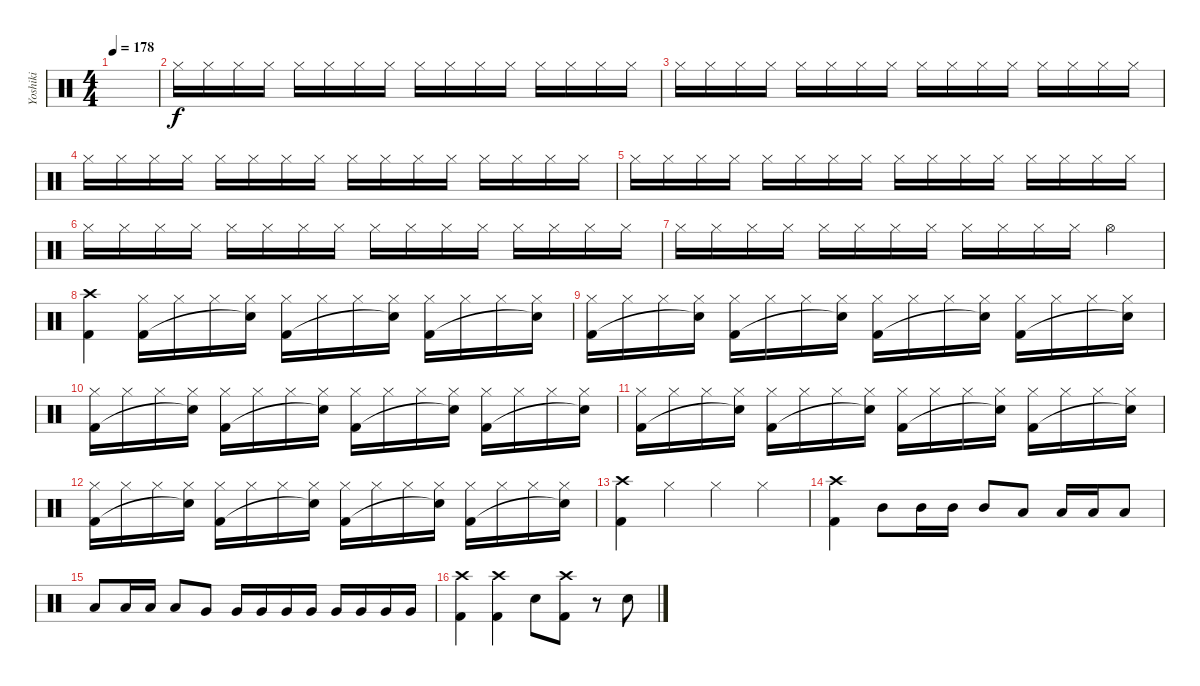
\track ("Yoshiki" "Yoshiki") {instrument percussion}
\staff {score}
\articulation defaults
\ts (4 4)
\tempo 178
\clef neutral
\ks c
|
"Hi-Hat (closed)".16 "Hi-Hat (closed)".16 "Hi-Hat (closed)".16 "Hi-Hat (closed)".16 "Hi-Hat (closed)".16 "Hi-Hat (closed)".16 "Hi-Hat (closed)".16 "Hi-Hat (closed)".16 "Hi-Hat (closed)".16 "Hi-Hat (closed)".16 "Hi-Hat (closed)".16 "Hi-Hat (closed)".16 "Hi-Hat (closed)".16 "Hi-Hat (closed)".16 "Hi-Hat (closed)".16 "Hi-Hat (closed)".16 |
"Hi-Hat (closed)".16 "Hi-Hat (closed)".16 "Hi-Hat (closed)".16 "Hi-Hat (closed)".16 "Hi-Hat (closed)".16 "Hi-Hat (closed)".16 "Hi-Hat (closed)".16 "Hi-Hat (closed)".16 "Hi-Hat (closed)".16 "Hi-Hat (closed)".16 "Hi-Hat (closed)".16 "Hi-Hat (closed)".16 "Hi-Hat (closed)".16 "Hi-Hat (closed)".16 "Hi-Hat (closed)".16 "Hi-Hat (closed)".16 |
"Hi-Hat (closed)".16 "Hi-Hat (closed)".16 "Hi-Hat (closed)".16 "Hi-Hat (closed)".16 "Hi-Hat (closed)".16 "Hi-Hat (closed)".16 "Hi-Hat (closed)".16 "Hi-Hat (closed)".16 "Hi-Hat (closed)".16 "Hi-Hat (closed)".16 "Hi-Hat (closed)".16 "Hi-Hat (closed)".16 "Hi-Hat (closed)".16 "Hi-Hat (closed)".16 "Hi-Hat (closed)".16 "Hi-Hat (closed)".16 |
"Hi-Hat (closed)".16 "Hi-Hat (closed)".16 "Hi-Hat (closed)".16 "Hi-Hat (closed)".16 "Hi-Hat (closed)".16 "Hi-Hat (closed)".16 "Hi-Hat (closed)".16 "Hi-Hat (closed)".16 "Hi-Hat (closed)".16 "Hi-Hat (closed)".16 "Hi-Hat (closed)".16 "Hi-Hat (closed)".16 "Hi-Hat (closed)".16 "Hi-Hat (closed)".16 "Hi-Hat (closed)".16 "Hi-Hat (closed)".16 |
"Hi-Hat (closed)".16 "Hi-Hat (closed)".16 "Hi-Hat (closed)".16 "Hi-Hat (closed)".16 "Hi-Hat (closed)".16 "Hi-Hat (closed)".16 "Hi-Hat (closed)".16 "Hi-Hat (closed)".16 "Hi-Hat (closed)".16 "Hi-Hat (closed)".16 "Hi-Hat (closed)".16 "Hi-Hat (closed)".16 "Hi-Hat (closed)".16 "Hi-Hat (closed)".16 "Hi-Hat (closed)".16 "Hi-Hat (closed)".16 |
"Hi-Hat (closed)".16 "Hi-Hat (closed)".16 "Hi-Hat (closed)".16 "Hi-Hat (closed)".16 "Hi-Hat (closed)".16 "Hi-Hat (closed)".16 "Hi-Hat (closed)".16 "Hi-Hat (closed)".16 "Hi-Hat (closed)".16 "Hi-Hat (closed)".16 "Hi-Hat (closed)".16 "Hi-Hat (closed)".16 "Hi-Hat (open)".4 |
("Crash high (hit)" "Kick (hit) 2").4 ("Hi-Hat (closed)" "Kick (hit) 2").16 "Hi-Hat (closed)".16 "Hi-Hat (closed)".16 ("Hi-Hat (closed)" "Snare (hit)"{t}).16 ("Hi-Hat (closed)" "Kick (hit) 2").16 "Hi-Hat (closed)".16 "Hi-Hat (closed)".16 ("Hi-Hat (closed)" "Snare (hit)"{t}).16 ("Hi-Hat (closed)" "Kick (hit) 2").16 "Hi-Hat (closed)".16 "Hi-Hat (closed)".16 ("Hi-Hat (closed)" "Snare (hit)"{t}).16 |
("Hi-Hat (closed)" "Kick (hit) 2").16 "Hi-Hat (closed)".16 "Hi-Hat (closed)".16 ("Hi-Hat (closed)" "Snare (hit)"{t}).16 ("Hi-Hat (closed)" "Kick (hit) 2").16 "Hi-Hat (closed)".16 "Hi-Hat (closed)".16 ("Hi-Hat (closed)" "Snare (hit)"{t}).16 ("Hi-Hat (closed)" "Kick (hit) 2").16 "Hi-Hat (closed)".16 "Hi-Hat (closed)".16 ("Hi-Hat (closed)" "Snare (hit)"{t}).16 ("Hi-Hat (closed)" "Kick (hit) 2").16 "Hi-Hat (closed)".16 "Hi-Hat (closed)".16 ("Hi-Hat (closed)" "Snare (hit)"{t}).16 |
("Hi-Hat (closed)" "Kick (hit) 2").16 "Hi-Hat (closed)".16 "Hi-Hat (closed)".16 ("Hi-Hat (closed)" "Snare (hit)"{t}).16 ("Hi-Hat (closed)" "Kick (hit) 2").16 "Hi-Hat (closed)".16 "Hi-Hat (closed)".16 ("Hi-Hat (closed)" "Snare (hit)"{t}).16 ("Hi-Hat (closed)" "Kick (hit) 2").16 "Hi-Hat (closed)".16 "Hi-Hat (closed)".16 ("Hi-Hat (closed)" "Snare (hit)"{t}).16 ("Hi-Hat (closed)" "Kick (hit) 2").16 "Hi-Hat (closed)".16 "Hi-Hat (closed)".16 ("Hi-Hat (closed)" "Snare (hit)"{t}).16 |
("Hi-Hat (closed)" "Kick (hit) 2").16 "Hi-Hat (closed)".16 "Hi-Hat (closed)".16 ("Hi-Hat (closed)" "Snare (hit)"{t}).16 ("Hi-Hat (closed)" "Kick (hit) 2").16 "Hi-Hat (closed)".16 "Hi-Hat (closed)".16 ("Hi-Hat (closed)" "Snare (hit)"{t}).16 ("Hi-Hat (closed)" "Kick (hit) 2").16 "Hi-Hat (closed)".16 "Hi-Hat (closed)".16 ("Hi-Hat (closed)" "Snare (hit)"{t}).16 ("Hi-Hat (closed)" "Kick (hit) 2").16 "Hi-Hat (closed)".16 "Hi-Hat (closed)".16 ("Hi-Hat (closed)" "Snare (hit)"{t}).16 |
("Hi-Hat (closed)" "Kick (hit) 2").16 "Hi-Hat (closed)".16 "Hi-Hat (closed)".16 ("Hi-Hat (closed)" "Snare (hit)"{t}).16 ("Hi-Hat (closed)" "Kick (hit) 2").16 "Hi-Hat (closed)".16 "Hi-Hat (closed)".16 ("Hi-Hat (closed)" "Snare (hit)"{t}).16 ("Hi-Hat (closed)" "Kick (hit) 2").16 "Hi-Hat (closed)".16 "Hi-Hat (closed)".16 ("Hi-Hat (closed)" "Snare (hit)"{t}).16 ("Hi-Hat (closed)" "Kick (hit) 2").16 "Hi-Hat (closed)".16 "Hi-Hat (closed)".16 ("Hi-Hat (closed)" "Snare (hit)"{t}).16 |
("Crash high (hit)" "Kick (hit) 2").4 "Hi-Hat (closed)".4 "Hi-Hat (closed)".4 "Hi-Hat (closed)".4 |
("Crash high (hit)" "Kick (hit) 2").4 "Mid Tom (hit)".8 "Mid Tom (hit)".16 "Mid Tom (hit)".16 "Mid Tom (hit)".8 "Low Tom (hit)".8 "Low Tom (hit)".16 "Low Tom (hit)".16 "Low Tom (hit)".8 |
"Low Tom (hit)".8 "Low Tom (hit)".16 "Low Tom (hit)".16 "Low Tom (hit)".8 "Very Low Tom (hit)".8 "Very Low Tom (hit)".16 "Very Low Tom (hit)".16 "Very Low Tom (hit)".16 "Very Low Tom (hit)".16 "Very Low Tom (hit)".16 "Very Low Tom (hit)".16 "Very Low Tom (hit)".16 "Very Low Tom (hit)".16 |
("Crash high (hit)" "Kick (hit) 2").4 ("Crash high (hit)" "Kick (hit) 2").4 "Snare (hit) 2".8 ("Crash high (hit)" "Kick (hit) 2").8 r.8 "Snare (hit) 2".8
